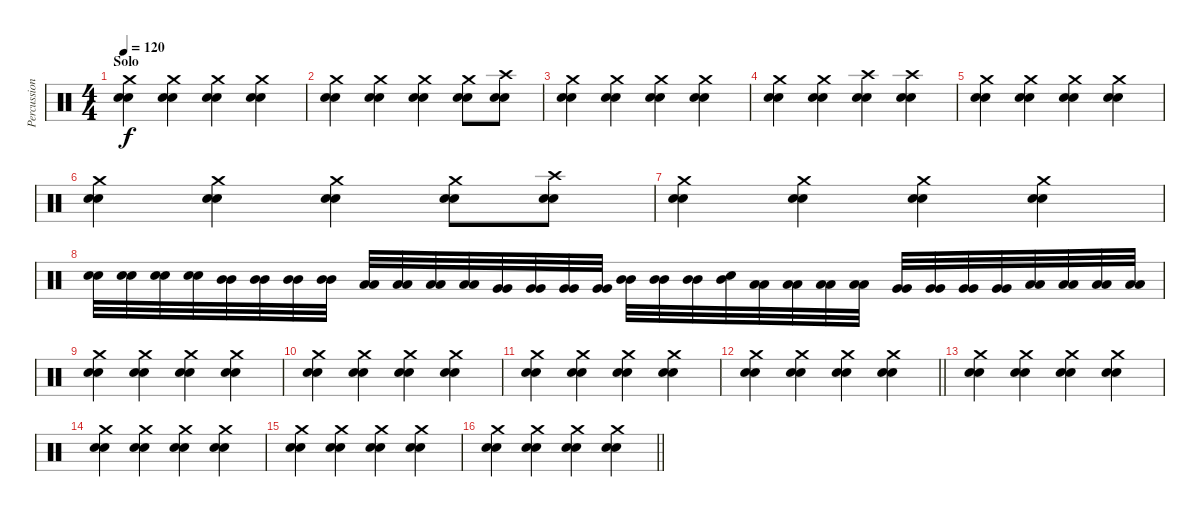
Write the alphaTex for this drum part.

\track ("Percussioni" "Percussion") {instrument percussion}
\staff
\articulation defaults
\ts (4 4)
\section ("" "Solo")
\tempo 120
\clef neutral
\ks c
("Crash medium (hit)" "Electric Snare (hit)" "Snare (hit) 2").4{dy f} ("Crash medium (hit)" "Electric Snare (hit)" "Snare (hit) 2").4 ("Crash medium (hit)" "Electric Snare (hit)" "Snare (hit) 2").4 ("Crash medium (hit)" "Electric Snare (hit)" "Snare (hit) 2").4 |
("Crash medium (hit)" "Electric Snare (hit)" "Snare (hit) 2").4 ("Crash medium (hit)" "Electric Snare (hit)" "Snare (hit) 2").4 ("Crash medium (hit)" "Electric Snare (hit)" "Snare (hit) 2").4 ("Crash medium (hit)" "Electric Snare (hit)" "Snare (hit) 2").8 ("Crash high (hit)" "Electric Snare (hit)" "Snare (hit) 2").8 |
("Crash medium (hit)" "Electric Snare (hit)" "Snare (hit) 2").4 ("Crash medium (hit)" "Electric Snare (hit)" "Snare (hit) 2").4 ("Crash medium (hit)" "Electric Snare (hit)" "Snare (hit) 2").4 ("Crash medium (hit)" "Electric Snare (hit)" "Snare (hit) 2").4 |
("Crash medium (hit)" "Electric Snare (hit)" "Snare (hit) 2").4 ("Crash medium (hit)" "Electric Snare (hit)" "Snare (hit) 2").4 ("Crash high (hit)" "Electric Snare (hit)" "Snare (hit) 2").4 ("Crash high (hit)" "Electric Snare (hit)" "Snare (hit) 2").4 |
("Crash medium (hit)" "Electric Snare (hit)" "Snare (hit) 2").4 ("Crash medium (hit)" "Electric Snare (hit)" "Snare (hit) 2").4 ("Crash medium (hit)" "Electric Snare (hit)" "Snare (hit) 2").4 ("Crash medium (hit)" "Electric Snare (hit)" "Snare (hit) 2").4 |
("Crash medium (hit)" "Electric Snare (hit)" "Snare (hit) 2").4 ("Crash medium (hit)" "Electric Snare (hit)" "Snare (hit) 2").4 ("Crash medium (hit)" "Electric Snare (hit)" "Snare (hit) 2").4 ("Crash medium (hit)" "Electric Snare (hit)" "Snare (hit) 2").8 ("Crash high (hit)" "Electric Snare (hit)" "Snare (hit) 2").8 |
("Crash medium (hit)" "Electric Snare (hit)" "Snare (hit) 2").4 ("Crash medium (hit)" "Electric Snare (hit)" "Snare (hit) 2").4 ("Crash medium (hit)" "Electric Snare (hit)" "Snare (hit) 2").4 ("Crash medium (hit)" "Electric Snare (hit)" "Snare (hit) 2").4 |
("Electric Snare (hit)" "Snare (hit) 2").32 ("Electric Snare (hit)" "Snare (hit) 2").32 ("Electric Snare (hit)" "Snare (hit) 2").32 ("Electric Snare (hit)" "Snare (hit) 2").32 ("Mid Tom (hit)" "Mid Tom (hit)").32 ("Mid Tom (hit)" "Mid Tom (hit)").32 ("Mid Tom (hit)" "Mid Tom (hit)").32 ("Mid Tom (hit)" "Mid Tom (hit)").32 ("Low Tom (hit)" "Low Tom (hit)").32 ("Low Tom (hit)" "Low Tom (hit)").32 ("Low Tom (hit)" "Low Tom (hit)").32 ("Low Tom (hit)" "Low Tom (hit)").32 ("Very Low Tom (hit)" "Very Low Tom (hit)").32 ("Very Low Tom (hit)" "Very Low Tom (hit)").32 ("Very Low Tom (hit)" "Very Low Tom (hit)").32 ("Very Low Tom (hit)" "Very Low Tom (hit)").32 ("Mid Tom (hit)" "Mid Tom (hit)").32 ("Mid Tom (hit)" "Mid Tom (hit)").32 ("Mid Tom (hit)" "Mid Tom (hit)").32 ("Mid Tom (hit)" "Snare (hit)").32 ("Low Tom (hit)" "Low Tom (hit)").32 ("Low Tom (hit)" "Low Tom (hit)").32 ("Low Tom (hit)" "Low Tom (hit)").32 ("Low Tom (hit)" "Low Tom (hit)").32 ("Very Low Tom (hit)" "Very Low Tom (hit)").32 ("Very Low Tom (hit)" "Very Low Tom (hit)").32 ("Very Low Tom (hit)" "Very Low Tom (hit)").32 ("Very Low Tom (hit)" "Very Low Tom (hit)").32 ("Low Floor Tom (hit)" "Low Floor Tom (hit)").32 ("Low Floor Tom (hit)" "Low Floor Tom (hit)").32 ("Low Floor Tom (hit)" "Low Floor Tom (hit)").32 ("Low Floor Tom (hit)" "Low Floor Tom (hit)").32 |
("Crash medium (hit)" "Electric Snare (hit)" "Snare (hit) 2").4 ("Crash medium (hit)" "Electric Snare (hit)" "Snare (hit) 2").4 ("Crash medium (hit)" "Electric Snare (hit)" "Snare (hit) 2").4 ("Crash medium (hit)" "Electric Snare (hit)" "Snare (hit) 2").4 |
("Crash medium (hit)" "Electric Snare (hit)" "Snare (hit) 2").4 ("Crash medium (hit)" "Electric Snare (hit)" "Snare (hit) 2").4 ("Crash medium (hit)" "Electric Snare (hit)" "Snare (hit) 2").4 ("Crash medium (hit)" "Electric Snare (hit)" "Snare (hit) 2").4 |
("Crash medium (hit)" "Electric Snare (hit)" "Snare (hit) 2").4 ("Crash medium (hit)" "Electric Snare (hit)" "Snare (hit) 2").4 ("Crash medium (hit)" "Electric Snare (hit)" "Snare (hit) 2").4 ("Crash medium (hit)" "Electric Snare (hit)" "Snare (hit) 2").4 |
\barLineRight lightlight
("Crash medium (hit)" "Electric Snare (hit)" "Snare (hit) 2").4 ("Crash medium (hit)" "Electric Snare (hit)" "Snare (hit) 2").4 ("Crash medium (hit)" "Electric Snare (hit)" "Snare (hit) 2").4 ("Crash medium (hit)" "Electric Snare (hit)" "Snare (hit) 2").4 |
("Crash medium (hit)" "Electric Snare (hit)" "Snare (hit) 2").4 ("Crash medium (hit)" "Electric Snare (hit)" "Snare (hit) 2").4 ("Crash medium (hit)" "Electric Snare (hit)" "Snare (hit) 2").4 ("Crash medium (hit)" "Electric Snare (hit)" "Snare (hit) 2").4 |
("Crash medium (hit)" "Electric Snare (hit)" "Snare (hit) 2").4 ("Crash medium (hit)" "Electric Snare (hit)" "Snare (hit) 2").4 ("Crash medium (hit)" "Electric Snare (hit)" "Snare (hit) 2").4 ("Crash medium (hit)" "Electric Snare (hit)" "Snare (hit) 2").4 |
("Crash medium (hit)" "Electric Snare (hit)" "Snare (hit) 2").4 ("Crash medium (hit)" "Electric Snare (hit)" "Snare (hit) 2").4 ("Crash medium (hit)" "Electric Snare (hit)" "Snare (hit) 2").4 ("Crash medium (hit)" "Electric Snare (hit)" "Snare (hit) 2").4 |
\barLineRight lightlight
("Crash medium (hit)" "Electric Snare (hit)" "Snare (hit) 2").4 ("Crash medium (hit)" "Electric Snare (hit)" "Snare (hit) 2").4 ("Crash medium (hit)" "Electric Snare (hit)" "Snare (hit) 2").4 ("Crash medium (hit)" "Electric Snare (hit)" "Snare (hit) 2").4
